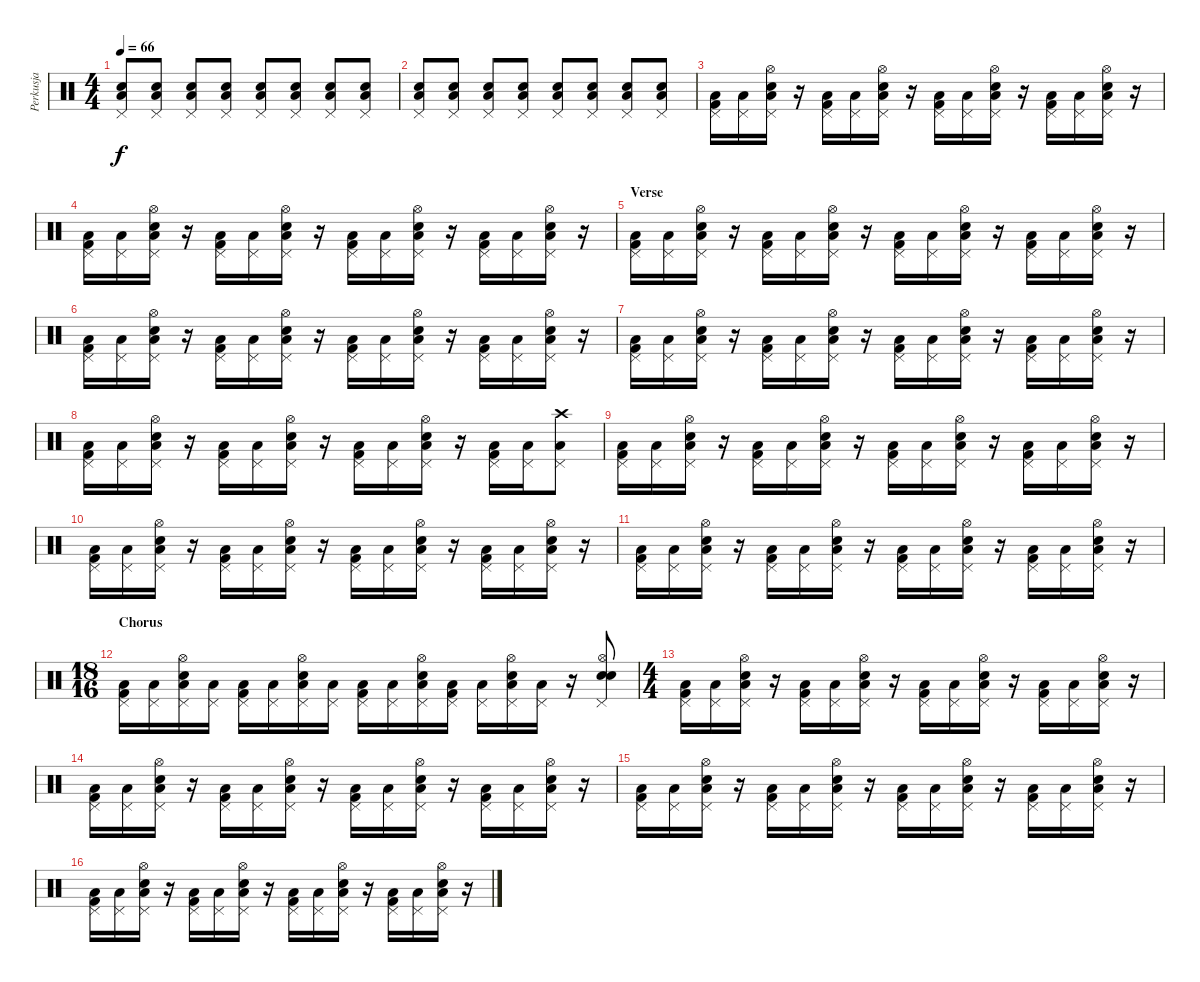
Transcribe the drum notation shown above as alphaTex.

\track ("Perkusja" "Perkusja") {instrument percussion}
\staff {score}
\articulation defaults
\ts (4 4)
\tempo 66
\clef neutral
\ks c
("Pedal Hi-Hat (hit)" "Low Floor Tom (hit)" "Snare (hit) 2").8{dy f} ("Pedal Hi-Hat (hit)" "Low Floor Tom (hit)" "Snare (hit) 2").8 ("Pedal Hi-Hat (hit)" "Low Floor Tom (hit)" "Snare (hit) 2").8 ("Pedal Hi-Hat (hit)" "Low Floor Tom (hit)" "Snare (hit) 2").8 ("Pedal Hi-Hat (hit)" "Low Floor Tom (hit)" "Snare (hit) 2").8 ("Pedal Hi-Hat (hit)" "Low Floor Tom (hit)" "Snare (hit) 2").8 ("Pedal Hi-Hat (hit)" "Low Floor Tom (hit)" "Snare (hit) 2").8 ("Pedal Hi-Hat (hit)" "Low Floor Tom (hit)" "Snare (hit) 2").8 |
("Pedal Hi-Hat (hit)" "Low Floor Tom (hit)" "Snare (hit) 2").8 ("Pedal Hi-Hat (hit)" "Low Floor Tom (hit)" "Snare (hit) 2").8 ("Pedal Hi-Hat (hit)" "Low Floor Tom (hit)" "Snare (hit) 2").8 ("Pedal Hi-Hat (hit)" "Low Floor Tom (hit)" "Snare (hit) 2").8 ("Pedal Hi-Hat (hit)" "Low Floor Tom (hit)" "Snare (hit) 2").8 ("Pedal Hi-Hat (hit)" "Low Floor Tom (hit)" "Snare (hit) 2").8 ("Pedal Hi-Hat (hit)" "Low Floor Tom (hit)" "Snare (hit) 2").8 ("Pedal Hi-Hat (hit)" "Low Floor Tom (hit)" "Snare (hit) 2").8 |
("Pedal Hi-Hat (hit)" "Low Floor Tom (hit)" "Kick (hit) 2").16 ("Pedal Hi-Hat (hit)" "Low Floor Tom (hit)").16 ("Pedal Hi-Hat (hit)" "Low Floor Tom (hit)" "Hi-Hat (open)" "Snare (hit) 2").16 r.16 ("Pedal Hi-Hat (hit)" "Low Floor Tom (hit)" "Kick (hit) 2").16 ("Pedal Hi-Hat (hit)" "Low Floor Tom (hit)").16 ("Pedal Hi-Hat (hit)" "Low Floor Tom (hit)" "Hi-Hat (open)" "Snare (hit) 2").16 r.16 ("Pedal Hi-Hat (hit)" "Low Floor Tom (hit)" "Kick (hit) 2").16 ("Pedal Hi-Hat (hit)" "Low Floor Tom (hit)").16 ("Pedal Hi-Hat (hit)" "Low Floor Tom (hit)" "Hi-Hat (open)" "Snare (hit) 2").16 r.16 ("Pedal Hi-Hat (hit)" "Low Floor Tom (hit)" "Kick (hit) 2").16 ("Pedal Hi-Hat (hit)" "Low Floor Tom (hit)").16 ("Pedal Hi-Hat (hit)" "Low Floor Tom (hit)" "Hi-Hat (open)" "Snare (hit) 2").16 r.16 |
("Pedal Hi-Hat (hit)" "Low Floor Tom (hit)" "Kick (hit) 2").16 ("Pedal Hi-Hat (hit)" "Low Floor Tom (hit)").16 ("Pedal Hi-Hat (hit)" "Low Floor Tom (hit)" "Hi-Hat (open)" "Snare (hit) 2").16 r.16 ("Pedal Hi-Hat (hit)" "Low Floor Tom (hit)" "Kick (hit) 2").16 ("Pedal Hi-Hat (hit)" "Low Floor Tom (hit)").16 ("Pedal Hi-Hat (hit)" "Low Floor Tom (hit)" "Hi-Hat (open)" "Snare (hit) 2").16 r.16 ("Pedal Hi-Hat (hit)" "Low Floor Tom (hit)" "Kick (hit) 2").16 ("Pedal Hi-Hat (hit)" "Low Floor Tom (hit)").16 ("Pedal Hi-Hat (hit)" "Low Floor Tom (hit)" "Hi-Hat (open)" "Snare (hit) 2").16 r.16 ("Pedal Hi-Hat (hit)" "Low Floor Tom (hit)" "Kick (hit) 2").16 ("Pedal Hi-Hat (hit)" "Low Floor Tom (hit)").16 ("Pedal Hi-Hat (hit)" "Low Floor Tom (hit)" "Hi-Hat (open)" "Snare (hit) 2").16 r.16 |
\section ("" "Verse")
("Pedal Hi-Hat (hit)" "Low Floor Tom (hit)" "Kick (hit) 2").16 ("Pedal Hi-Hat (hit)" "Low Floor Tom (hit)").16 ("Pedal Hi-Hat (hit)" "Low Floor Tom (hit)" "Hi-Hat (open)" "Snare (hit) 2").16 r.16 ("Pedal Hi-Hat (hit)" "Low Floor Tom (hit)" "Kick (hit) 2").16 ("Pedal Hi-Hat (hit)" "Low Floor Tom (hit)").16 ("Pedal Hi-Hat (hit)" "Low Floor Tom (hit)" "Hi-Hat (open)" "Snare (hit) 2").16 r.16 ("Pedal Hi-Hat (hit)" "Low Floor Tom (hit)" "Kick (hit) 2").16 ("Pedal Hi-Hat (hit)" "Low Floor Tom (hit)").16 ("Pedal Hi-Hat (hit)" "Low Floor Tom (hit)" "Hi-Hat (open)" "Snare (hit) 2").16 r.16 ("Pedal Hi-Hat (hit)" "Low Floor Tom (hit)" "Kick (hit) 2").16 ("Pedal Hi-Hat (hit)" "Low Floor Tom (hit)").16 ("Pedal Hi-Hat (hit)" "Low Floor Tom (hit)" "Hi-Hat (open)" "Snare (hit) 2").16 r.16 |
("Pedal Hi-Hat (hit)" "Low Floor Tom (hit)" "Kick (hit) 2").16 ("Pedal Hi-Hat (hit)" "Low Floor Tom (hit)").16 ("Pedal Hi-Hat (hit)" "Low Floor Tom (hit)" "Hi-Hat (open)" "Snare (hit) 2").16 r.16 ("Pedal Hi-Hat (hit)" "Low Floor Tom (hit)" "Kick (hit) 2").16 ("Pedal Hi-Hat (hit)" "Low Floor Tom (hit)").16 ("Pedal Hi-Hat (hit)" "Low Floor Tom (hit)" "Hi-Hat (open)" "Snare (hit) 2").16 r.16 ("Pedal Hi-Hat (hit)" "Low Floor Tom (hit)" "Kick (hit) 2").16 ("Pedal Hi-Hat (hit)" "Low Floor Tom (hit)").16 ("Pedal Hi-Hat (hit)" "Low Floor Tom (hit)" "Hi-Hat (open)" "Snare (hit) 2").16 r.16 ("Pedal Hi-Hat (hit)" "Low Floor Tom (hit)" "Kick (hit) 2").16 ("Pedal Hi-Hat (hit)" "Low Floor Tom (hit)").16 ("Pedal Hi-Hat (hit)" "Low Floor Tom (hit)" "Hi-Hat (open)" "Snare (hit) 2").16 r.16 |
("Pedal Hi-Hat (hit)" "Low Floor Tom (hit)" "Kick (hit) 2").16 ("Pedal Hi-Hat (hit)" "Low Floor Tom (hit)").16 ("Pedal Hi-Hat (hit)" "Low Floor Tom (hit)" "Hi-Hat (open)" "Snare (hit) 2").16 r.16 ("Pedal Hi-Hat (hit)" "Low Floor Tom (hit)" "Kick (hit) 2").16 ("Pedal Hi-Hat (hit)" "Low Floor Tom (hit)").16 ("Pedal Hi-Hat (hit)" "Low Floor Tom (hit)" "Hi-Hat (open)" "Snare (hit) 2").16 r.16 ("Pedal Hi-Hat (hit)" "Low Floor Tom (hit)" "Kick (hit) 2").16 ("Pedal Hi-Hat (hit)" "Low Floor Tom (hit)").16 ("Pedal Hi-Hat (hit)" "Low Floor Tom (hit)" "Hi-Hat (open)" "Snare (hit) 2").16 r.16 ("Pedal Hi-Hat (hit)" "Low Floor Tom (hit)" "Kick (hit) 2").16 ("Pedal Hi-Hat (hit)" "Low Floor Tom (hit)").16 ("Pedal Hi-Hat (hit)" "Low Floor Tom (hit)" "Hi-Hat (open)" "Snare (hit) 2").16 r.16 |
("Pedal Hi-Hat (hit)" "Low Floor Tom (hit)" "Kick (hit) 2").16 ("Pedal Hi-Hat (hit)" "Low Floor Tom (hit)").16 ("Pedal Hi-Hat (hit)" "Low Floor Tom (hit)" "Hi-Hat (open)" "Snare (hit) 2").16 r.16 ("Pedal Hi-Hat (hit)" "Low Floor Tom (hit)" "Kick (hit) 2").16 ("Pedal Hi-Hat (hit)" "Low Floor Tom (hit)").16 ("Pedal Hi-Hat (hit)" "Low Floor Tom (hit)" "Hi-Hat (open)" "Snare (hit) 2").16 r.16 ("Pedal Hi-Hat (hit)" "Low Floor Tom (hit)" "Kick (hit) 2").16 ("Pedal Hi-Hat (hit)" "Low Floor Tom (hit)").16 ("Pedal Hi-Hat (hit)" "Low Floor Tom (hit)" "Hi-Hat (open)" "Snare (hit) 2").16 r.16 ("Pedal Hi-Hat (hit)" "Low Floor Tom (hit)" "Kick (hit) 2").16 ("Pedal Hi-Hat (hit)" "Low Floor Tom (hit)").16 ("Pedal Hi-Hat (hit)" "Low Floor Tom (hit)" "Crash high (hit)").8 |
("Pedal Hi-Hat (hit)" "Low Floor Tom (hit)" "Kick (hit) 2").16 ("Pedal Hi-Hat (hit)" "Low Floor Tom (hit)").16 ("Pedal Hi-Hat (hit)" "Low Floor Tom (hit)" "Hi-Hat (open)" "Snare (hit) 2").16 r.16 ("Pedal Hi-Hat (hit)" "Low Floor Tom (hit)" "Kick (hit) 2").16 ("Pedal Hi-Hat (hit)" "Low Floor Tom (hit)").16 ("Pedal Hi-Hat (hit)" "Low Floor Tom (hit)" "Hi-Hat (open)" "Snare (hit) 2").16 r.16 ("Pedal Hi-Hat (hit)" "Low Floor Tom (hit)" "Kick (hit) 2").16 ("Pedal Hi-Hat (hit)" "Low Floor Tom (hit)").16 ("Pedal Hi-Hat (hit)" "Low Floor Tom (hit)" "Hi-Hat (open)" "Snare (hit) 2").16 r.16 ("Pedal Hi-Hat (hit)" "Low Floor Tom (hit)" "Kick (hit) 2").16 ("Pedal Hi-Hat (hit)" "Low Floor Tom (hit)").16 ("Pedal Hi-Hat (hit)" "Low Floor Tom (hit)" "Hi-Hat (open)" "Snare (hit) 2").16 r.16 |
("Pedal Hi-Hat (hit)" "Low Floor Tom (hit)" "Kick (hit) 2").16 ("Pedal Hi-Hat (hit)" "Low Floor Tom (hit)").16 ("Pedal Hi-Hat (hit)" "Low Floor Tom (hit)" "Hi-Hat (open)" "Snare (hit) 2").16 r.16 ("Pedal Hi-Hat (hit)" "Low Floor Tom (hit)" "Kick (hit) 2").16 ("Pedal Hi-Hat (hit)" "Low Floor Tom (hit)").16 ("Pedal Hi-Hat (hit)" "Low Floor Tom (hit)" "Hi-Hat (open)" "Snare (hit) 2").16 r.16 ("Pedal Hi-Hat (hit)" "Low Floor Tom (hit)" "Kick (hit) 2").16 ("Pedal Hi-Hat (hit)" "Low Floor Tom (hit)").16 ("Pedal Hi-Hat (hit)" "Low Floor Tom (hit)" "Hi-Hat (open)" "Snare (hit) 2").16 r.16 ("Pedal Hi-Hat (hit)" "Low Floor Tom (hit)" "Kick (hit) 2").16 ("Pedal Hi-Hat (hit)" "Low Floor Tom (hit)").16 ("Pedal Hi-Hat (hit)" "Low Floor Tom (hit)" "Hi-Hat (open)" "Snare (hit) 2").16 r.16 |
("Pedal Hi-Hat (hit)" "Low Floor Tom (hit)" "Kick (hit) 2").16 ("Pedal Hi-Hat (hit)" "Low Floor Tom (hit)").16 ("Pedal Hi-Hat (hit)" "Low Floor Tom (hit)" "Hi-Hat (open)" "Snare (hit) 2").16 r.16 ("Pedal Hi-Hat (hit)" "Low Floor Tom (hit)" "Kick (hit) 2").16 ("Pedal Hi-Hat (hit)" "Low Floor Tom (hit)").16 ("Pedal Hi-Hat (hit)" "Low Floor Tom (hit)" "Hi-Hat (open)" "Snare (hit) 2").16 r.16 ("Pedal Hi-Hat (hit)" "Low Floor Tom (hit)" "Kick (hit) 2").16 ("Pedal Hi-Hat (hit)" "Low Floor Tom (hit)").16 ("Pedal Hi-Hat (hit)" "Low Floor Tom (hit)" "Hi-Hat (open)" "Snare (hit) 2").16 r.16 ("Pedal Hi-Hat (hit)" "Low Floor Tom (hit)" "Kick (hit) 2").16 ("Pedal Hi-Hat (hit)" "Low Floor Tom (hit)").16 ("Pedal Hi-Hat (hit)" "Low Floor Tom (hit)" "Hi-Hat (open)" "Snare (hit) 2").16 r.16 |
\ts (18 16)
\section ("" "Chorus")
("Pedal Hi-Hat (hit)" "Low Floor Tom (hit)" "Kick (hit) 2").16 ("Pedal Hi-Hat (hit)" "Low Floor Tom (hit)").16 ("Pedal Hi-Hat (hit)" "Low Floor Tom (hit)" "Hi-Hat (open)" "Snare (hit) 2").16 ("Pedal Hi-Hat (hit)" "Low Floor Tom (hit)").16 ("Pedal Hi-Hat (hit)" "Low Floor Tom (hit)" "Kick (hit) 2").16 ("Pedal Hi-Hat (hit)" "Low Floor Tom (hit)").16 ("Pedal Hi-Hat (hit)" "Low Floor Tom (hit)" "Hi-Hat (open)" "Snare (hit) 2").16 ("Pedal Hi-Hat (hit)" "Low Floor Tom (hit)").16 ("Pedal Hi-Hat (hit)" "Low Floor Tom (hit)" "Kick (hit) 2").16 ("Pedal Hi-Hat (hit)" "Low Floor Tom (hit)").16 ("Pedal Hi-Hat (hit)" "Low Floor Tom (hit)" "Hi-Hat (open)" "Snare (hit) 2").16 ("Pedal Hi-Hat (hit)" "Low Floor Tom (hit)" "Kick (hit) 2").16 ("Pedal Hi-Hat (hit)" "Low Floor Tom (hit)").16 ("Pedal Hi-Hat (hit)" "Low Floor Tom (hit)" "Hi-Hat (open)" "Snare (hit) 2").16 ("Pedal Hi-Hat (hit)" "Low Floor Tom (hit)").16 r.16 ("Pedal Hi-Hat (hit)" "Electric Snare (hit)" "Electric Snare (hit)" "Hi-Hat (open)").8 |
\ts (4 4)
("Pedal Hi-Hat (hit)" "Low Floor Tom (hit)" "Kick (hit) 2").16 ("Pedal Hi-Hat (hit)" "Low Floor Tom (hit)").16 ("Pedal Hi-Hat (hit)" "Low Floor Tom (hit)" "Hi-Hat (open)" "Snare (hit) 2").16 r.16 ("Pedal Hi-Hat (hit)" "Low Floor Tom (hit)" "Kick (hit) 2").16 ("Pedal Hi-Hat (hit)" "Low Floor Tom (hit)").16 ("Pedal Hi-Hat (hit)" "Low Floor Tom (hit)" "Hi-Hat (open)" "Snare (hit) 2").16 r.16 ("Pedal Hi-Hat (hit)" "Low Floor Tom (hit)" "Kick (hit) 2").16 ("Pedal Hi-Hat (hit)" "Low Floor Tom (hit)").16 ("Pedal Hi-Hat (hit)" "Low Floor Tom (hit)" "Hi-Hat (open)" "Snare (hit) 2").16 r.16 ("Pedal Hi-Hat (hit)" "Low Floor Tom (hit)" "Kick (hit) 2").16 ("Pedal Hi-Hat (hit)" "Low Floor Tom (hit)").16 ("Pedal Hi-Hat (hit)" "Low Floor Tom (hit)" "Hi-Hat (open)" "Snare (hit) 2").16 r.16 |
("Pedal Hi-Hat (hit)" "Low Floor Tom (hit)" "Kick (hit) 2").16 ("Pedal Hi-Hat (hit)" "Low Floor Tom (hit)").16 ("Pedal Hi-Hat (hit)" "Low Floor Tom (hit)" "Hi-Hat (open)" "Snare (hit) 2").16 r.16 ("Pedal Hi-Hat (hit)" "Low Floor Tom (hit)" "Kick (hit) 2").16 ("Pedal Hi-Hat (hit)" "Low Floor Tom (hit)").16 ("Pedal Hi-Hat (hit)" "Low Floor Tom (hit)" "Hi-Hat (open)" "Snare (hit) 2").16 r.16 ("Pedal Hi-Hat (hit)" "Low Floor Tom (hit)" "Kick (hit) 2").16 ("Pedal Hi-Hat (hit)" "Low Floor Tom (hit)").16 ("Pedal Hi-Hat (hit)" "Low Floor Tom (hit)" "Hi-Hat (open)" "Snare (hit) 2").16 r.16 ("Pedal Hi-Hat (hit)" "Low Floor Tom (hit)" "Kick (hit) 2").16 ("Pedal Hi-Hat (hit)" "Low Floor Tom (hit)").16 ("Pedal Hi-Hat (hit)" "Low Floor Tom (hit)" "Hi-Hat (open)" "Snare (hit) 2").16 r.16 |
("Pedal Hi-Hat (hit)" "Low Floor Tom (hit)" "Kick (hit) 2").16 ("Pedal Hi-Hat (hit)" "Low Floor Tom (hit)").16 ("Pedal Hi-Hat (hit)" "Low Floor Tom (hit)" "Hi-Hat (open)" "Snare (hit) 2").16 r.16 ("Pedal Hi-Hat (hit)" "Low Floor Tom (hit)" "Kick (hit) 2").16 ("Pedal Hi-Hat (hit)" "Low Floor Tom (hit)").16 ("Pedal Hi-Hat (hit)" "Low Floor Tom (hit)" "Hi-Hat (open)" "Snare (hit) 2").16 r.16 ("Pedal Hi-Hat (hit)" "Low Floor Tom (hit)" "Kick (hit) 2").16 ("Pedal Hi-Hat (hit)" "Low Floor Tom (hit)").16 ("Pedal Hi-Hat (hit)" "Low Floor Tom (hit)" "Hi-Hat (open)" "Snare (hit) 2").16 r.16 ("Pedal Hi-Hat (hit)" "Low Floor Tom (hit)" "Kick (hit) 2").16 ("Pedal Hi-Hat (hit)" "Low Floor Tom (hit)").16 ("Pedal Hi-Hat (hit)" "Low Floor Tom (hit)" "Hi-Hat (open)" "Snare (hit) 2").16 r.16 |
("Pedal Hi-Hat (hit)" "Low Floor Tom (hit)" "Kick (hit) 2").16 ("Pedal Hi-Hat (hit)" "Low Floor Tom (hit)").16 ("Pedal Hi-Hat (hit)" "Low Floor Tom (hit)" "Hi-Hat (open)" "Snare (hit) 2").16 r.16 ("Pedal Hi-Hat (hit)" "Low Floor Tom (hit)" "Kick (hit) 2").16 ("Pedal Hi-Hat (hit)" "Low Floor Tom (hit)").16 ("Pedal Hi-Hat (hit)" "Low Floor Tom (hit)" "Hi-Hat (open)" "Snare (hit) 2").16 r.16 ("Pedal Hi-Hat (hit)" "Low Floor Tom (hit)" "Kick (hit) 2").16 ("Pedal Hi-Hat (hit)" "Low Floor Tom (hit)").16 ("Pedal Hi-Hat (hit)" "Low Floor Tom (hit)" "Hi-Hat (open)" "Snare (hit) 2").16 r.16 ("Pedal Hi-Hat (hit)" "Low Floor Tom (hit)" "Kick (hit) 2").16 ("Pedal Hi-Hat (hit)" "Low Floor Tom (hit)").16 ("Pedal Hi-Hat (hit)" "Low Floor Tom (hit)" "Hi-Hat (open)" "Snare (hit) 2").16 r.16
